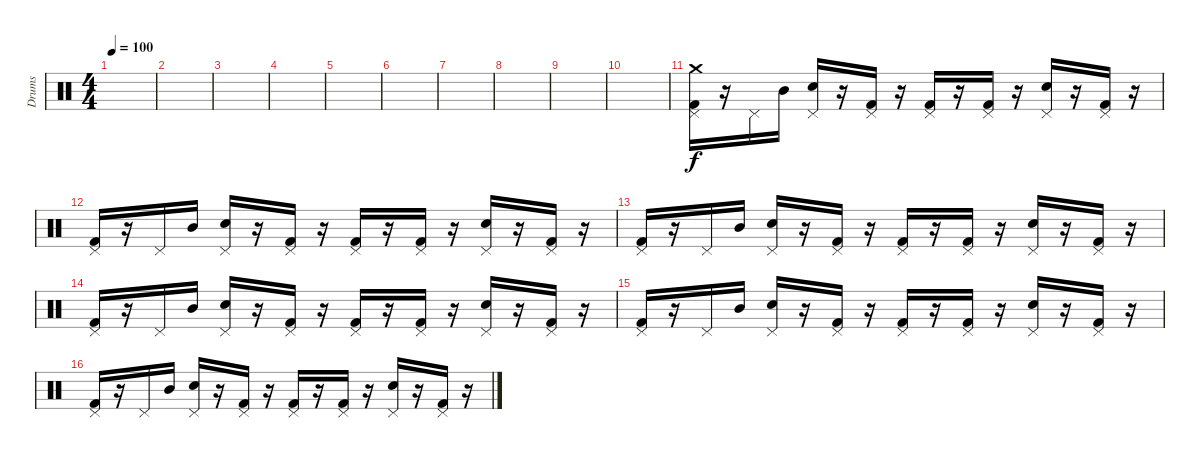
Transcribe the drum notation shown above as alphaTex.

\track ("Drums" "Drums") {instrument percussion}
\staff {score}
\articulation defaults
\ts (4 4)
\tempo 100
\clef neutral
\ks c
|
|
|
|
|
|
|
|
|
|
("Kick (hit) 2" "Pedal Hi-Hat (hit)" "Crash medium (hit)").16{volume 12} r.16 "Pedal Hi-Hat (hit)".16 "Mid Tom (hit)".16 ("Pedal Hi-Hat (hit)" "Electric Snare (hit)").16 r.16 ("Kick (hit) 2" "Pedal Hi-Hat (hit)").16 r.16 ("Kick (hit) 2" "Pedal Hi-Hat (hit)").16 r.16 ("Kick (hit) 2" "Pedal Hi-Hat (hit)").16 r.16 ("Pedal Hi-Hat (hit)" "Electric Snare (hit)").16 r.16 ("Kick (hit) 2" "Pedal Hi-Hat (hit)").16 r.16 |
("Kick (hit) 2" "Pedal Hi-Hat (hit)").16 r.16 "Pedal Hi-Hat (hit)".16 "Mid Tom (hit)".16 ("Pedal Hi-Hat (hit)" "Electric Snare (hit)").16 r.16 ("Kick (hit) 2" "Pedal Hi-Hat (hit)").16 r.16 ("Kick (hit) 2" "Pedal Hi-Hat (hit)").16 r.16 ("Kick (hit) 2" "Pedal Hi-Hat (hit)").16 r.16 ("Pedal Hi-Hat (hit)" "Electric Snare (hit)").16 r.16 ("Kick (hit) 2" "Pedal Hi-Hat (hit)").16 r.16 |
("Kick (hit) 2" "Pedal Hi-Hat (hit)").16 r.16 "Pedal Hi-Hat (hit)".16 "Mid Tom (hit)".16 ("Pedal Hi-Hat (hit)" "Electric Snare (hit)").16 r.16 ("Kick (hit) 2" "Pedal Hi-Hat (hit)").16 r.16 ("Kick (hit) 2" "Pedal Hi-Hat (hit)").16 r.16 ("Kick (hit) 2" "Pedal Hi-Hat (hit)").16 r.16 ("Pedal Hi-Hat (hit)" "Electric Snare (hit)").16 r.16 ("Kick (hit) 2" "Pedal Hi-Hat (hit)").16 r.16 |
("Kick (hit) 2" "Pedal Hi-Hat (hit)").16 r.16 "Pedal Hi-Hat (hit)".16 "Mid Tom (hit)".16 ("Pedal Hi-Hat (hit)" "Electric Snare (hit)").16 r.16 ("Kick (hit) 2" "Pedal Hi-Hat (hit)").16 r.16 ("Kick (hit) 2" "Pedal Hi-Hat (hit)").16 r.16 ("Kick (hit) 2" "Pedal Hi-Hat (hit)").16 r.16 ("Pedal Hi-Hat (hit)" "Electric Snare (hit)").16 r.16 ("Kick (hit) 2" "Pedal Hi-Hat (hit)").16 r.16 |
("Kick (hit) 2" "Pedal Hi-Hat (hit)").16 r.16 "Pedal Hi-Hat (hit)".16 "Mid Tom (hit)".16 ("Pedal Hi-Hat (hit)" "Electric Snare (hit)").16 r.16 ("Kick (hit) 2" "Pedal Hi-Hat (hit)").16 r.16 ("Kick (hit) 2" "Pedal Hi-Hat (hit)").16 r.16 ("Kick (hit) 2" "Pedal Hi-Hat (hit)").16 r.16 ("Pedal Hi-Hat (hit)" "Electric Snare (hit)").16 r.16 ("Kick (hit) 2" "Pedal Hi-Hat (hit)").16 r.16 |
("Kick (hit) 2" "Pedal Hi-Hat (hit)").16 r.16 "Pedal Hi-Hat (hit)".16 "Mid Tom (hit)".16 ("Pedal Hi-Hat (hit)" "Electric Snare (hit)").16 r.16 ("Kick (hit) 2" "Pedal Hi-Hat (hit)").16 r.16 ("Kick (hit) 2" "Pedal Hi-Hat (hit)").16 r.16 ("Kick (hit) 2" "Pedal Hi-Hat (hit)").16 r.16 ("Pedal Hi-Hat (hit)" "Electric Snare (hit)").16 r.16 ("Kick (hit) 2" "Pedal Hi-Hat (hit)").16 r.16
